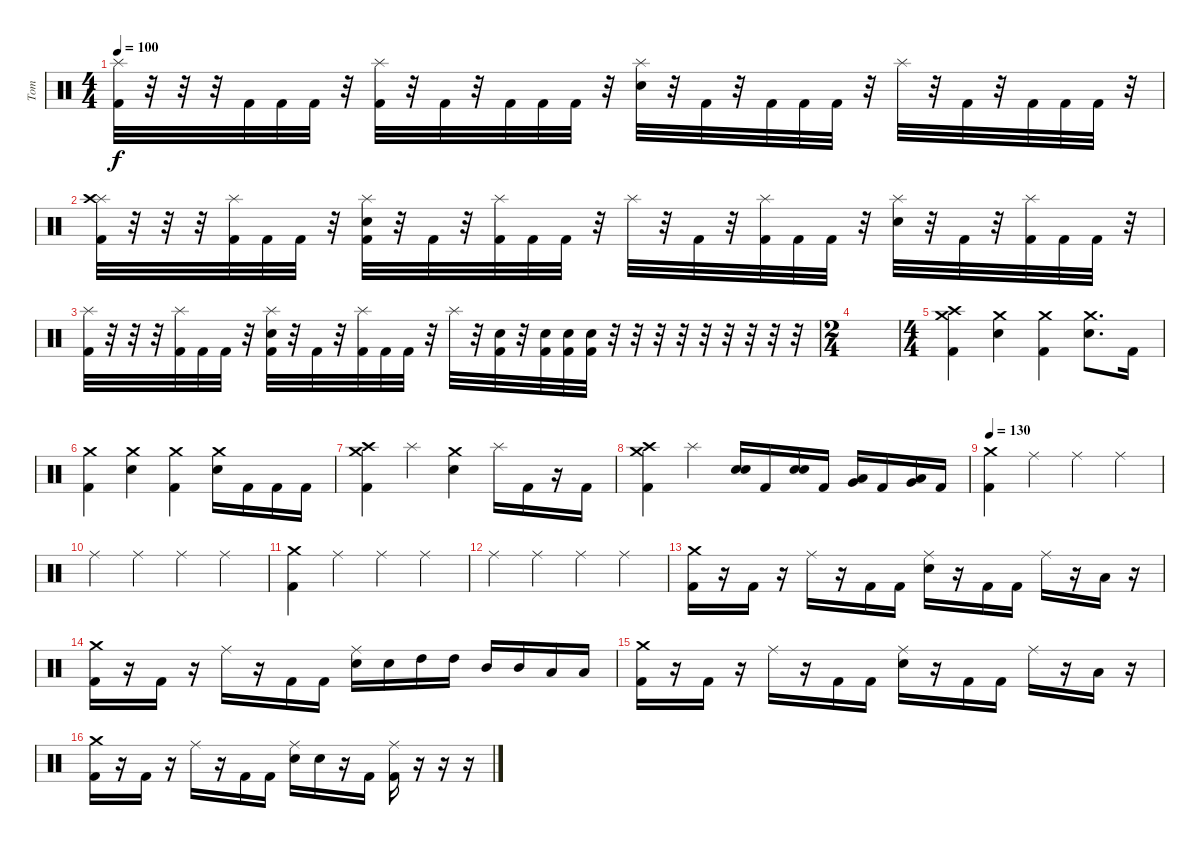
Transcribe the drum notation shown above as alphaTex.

\track ("Tom" "Tom") {instrument percussion}
\staff {score}
\articulation defaults
\ts (4 4)
\tempo 100
\clef neutral
\ks c
("Splash (hit)" "Kick (hit) 2").32{dy f} r.32 r.32 r.32 "Kick (hit) 2".32 "Kick (hit) 2".32 "Kick (hit) 2".32 r.32 ("Splash (hit)" "Kick (hit) 2").32 r.32 "Kick (hit) 2".32 r.32 "Kick (hit) 2".32 "Kick (hit) 2".32 "Kick (hit) 2".32 r.32 ("Splash (hit)" "Electric Snare (hit)").32 r.32 "Kick (hit) 2".32 r.32 "Kick (hit) 2".32 "Kick (hit) 2".32 "Kick (hit) 2".32 r.32 "Splash (hit)".32 r.32 "Kick (hit) 2".32 r.32 "Kick (hit) 2".32 "Kick (hit) 2".32 "Kick (hit) 2".32 r.32 |
("Splash (hit)" "Crash high (hit)" "Kick (hit) 2").32 r.32 r.32 r.32 ("Splash (hit)" "Kick (hit) 2").32 "Kick (hit) 2".32 "Kick (hit) 2".32 r.32 ("Splash (hit)" "Electric Snare (hit)" "Kick (hit) 2").32 r.32 "Kick (hit) 2".32 r.32 ("Splash (hit)" "Kick (hit) 2").32 "Kick (hit) 2".32 "Kick (hit) 2".32 r.32 "Splash (hit)".32 r.32 "Kick (hit) 2".32 r.32 ("Splash (hit)" "Kick (hit) 2").32 "Kick (hit) 2".32 "Kick (hit) 2".32 r.32 ("Splash (hit)" "Electric Snare (hit)").32 r.32 "Kick (hit) 2".32 r.32 ("Splash (hit)" "Kick (hit) 2").32 "Kick (hit) 2".32 "Kick (hit) 2".32 r.32 |
("Splash (hit)" "Kick (hit) 2").32 r.32 r.32 r.32 ("Splash (hit)" "Kick (hit) 2").32 "Kick (hit) 2".32 "Kick (hit) 2".32 r.32 ("Splash (hit)" "Electric Snare (hit)" "Kick (hit) 2").32 r.32 "Kick (hit) 2".32 r.32 ("Splash (hit)" "Kick (hit) 2").32 "Kick (hit) 2".32 "Kick (hit) 2".32 r.32 "Splash (hit)".32 r.32 ("Electric Snare (hit)" "Kick (hit) 2").32 r.32 ("Electric Snare (hit)" "Kick (hit) 2").32 ("Electric Snare (hit)" "Kick (hit) 2").32 ("Electric Snare (hit)" "Kick (hit) 2").32 r.32 r.32 r.32 r.32 r.32 r.32 r.32 r.32 r.32 |
\ts (2 4)
|
\ts (4 4)
("Crash high (hit)" "Crash medium (hit)" "Kick (hit) 2").4 ("Crash medium (hit)" "Electric Snare (hit)").4 ("Crash medium (hit)" "Kick (hit) 2").4 ("Crash medium (hit)" "Electric Snare (hit)").8{d} "Kick (hit) 2".16 |
("Crash medium (hit)" "Kick (hit) 2").4 ("Crash medium (hit)" "Electric Snare (hit)").4 ("Crash medium (hit)" "Kick (hit) 2").4 ("Crash medium (hit)" "Electric Snare (hit)").16 "Kick (hit) 2".16 "Kick (hit) 2".16 "Kick (hit) 2".16 |
("Crash high (hit)" "Crash medium (hit)" "Kick (hit) 2").4 "Splash (hit)".4 ("Crash medium (hit)" "Electric Snare (hit)").4 "Splash (hit)".16 "Kick (hit) 2".16 r.16 "Kick (hit) 2".16 |
("Crash high (hit)" "Crash medium (hit)" "Kick (hit) 2").4 "Splash (hit)".4 ("Electric Snare (hit)" "Electric Snare (hit)").16{bd 60} "Kick (hit) 2".16 ("Electric Snare (hit)" "Electric Snare (hit)").16{bd 60} "Kick (hit) 2".16 ("Low Tom (hit)" "Very Low Tom (hit)").16{bd 60} "Kick (hit) 2".16 ("Low Tom (hit)" "Very Low Tom (hit)").16{bd 60} "Kick (hit) 2".16 |
\tempo 130
("Crash medium (hit)" "Kick (hit) 2").4 "Ride (middle)".4 "Ride (middle)".4 "Ride (middle)".4 |
"Ride (middle)".4 "Ride (middle)".4 "Ride (middle)".4 "Ride (middle)".4 |
("Crash medium (hit)" "Kick (hit) 2").4 "Ride (middle)".4 "Ride (middle)".4 "Ride (middle)".4 |
"Ride (middle)".4 "Ride (middle)".4 "Ride (middle)".4 "Ride (middle)".4 |
("Crash medium (hit)" "Kick (hit) 2").16 r.16 "Kick (hit) 2".16 r.16 "Ride (middle)".16 r.16 "Kick (hit) 2".16 "Kick (hit) 2".16 ("Ride (middle)" "Electric Snare (hit)").16 r.16 "Kick (hit) 2".16 "Kick (hit) 2".16 "Ride (middle)".16 r.16 "Low Tom (hit)".16 r.16 |
("Crash medium (hit)" "Kick (hit) 2").16 r.16 "Kick (hit) 2".16 r.16 "Ride (middle)".16 r.16 "Kick (hit) 2".16 "Kick (hit) 2".16 ("Ride (middle)" "Electric Snare (hit)").16 "Electric Snare (hit)".16 "High Tom (hit)".16 "High Tom (hit)".16 "Mid Tom (hit)".16 "Mid Tom (hit)".16 "Low Tom (hit)".16 "Low Tom (hit)".16 |
("Crash medium (hit)" "Kick (hit) 2").16 r.16 "Kick (hit) 2".16 r.16 "Ride (middle)".16 r.16 "Kick (hit) 2".16 "Kick (hit) 2".16 ("Ride (middle)" "Electric Snare (hit)").16 r.16 "Kick (hit) 2".16 "Kick (hit) 2".16 "Ride (middle)".16 r.16 "Low Tom (hit)".16 r.16 |
("Crash medium (hit)" "Kick (hit) 2").16 r.16 "Kick (hit) 2".16 r.16 "Ride (middle)".16 r.16 "Kick (hit) 2".16 "Kick (hit) 2".16 ("Ride (middle)" "Electric Snare (hit)").16 "Electric Snare (hit)".16 r.16 "Kick (hit) 2".16 ("Ride (middle)" "Kick (hit) 2").16 r.16 r.16 r.16
